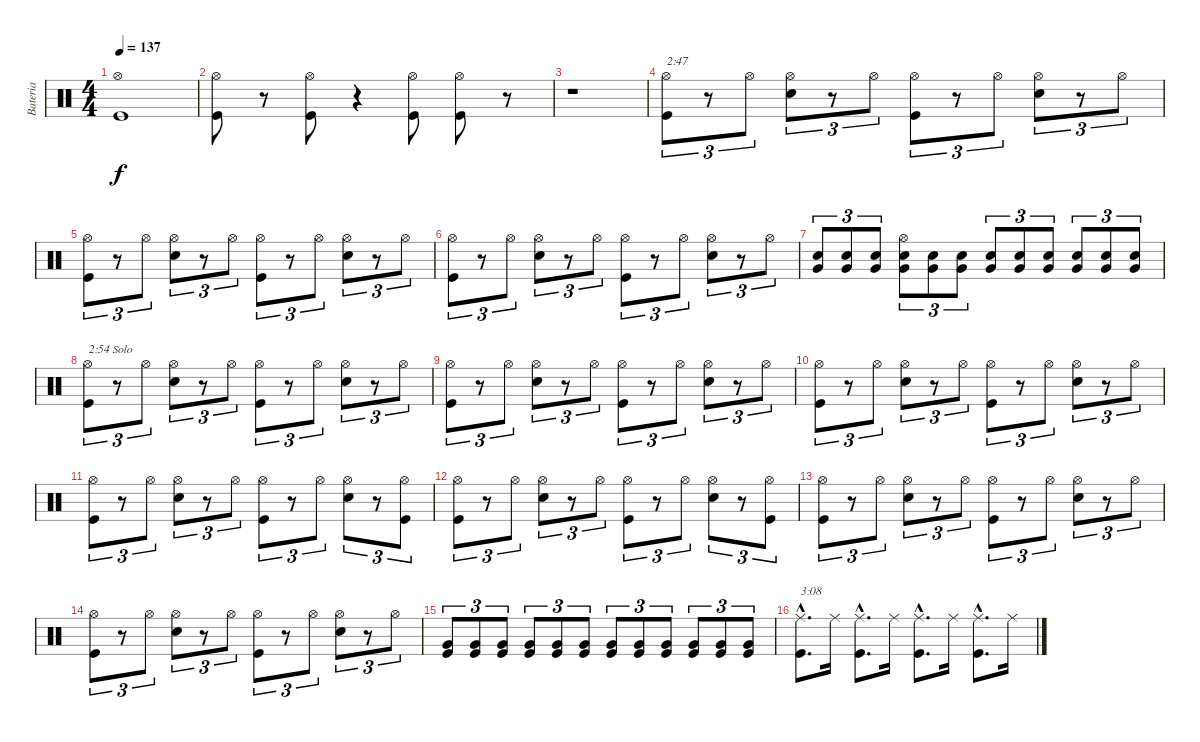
\track ("Bateria" "Bateria") {instrument percussion}
\staff {score}
\articulation defaults
\ts (4 4)
\tempo 137
\clef neutral
\ks c
("Kick (hit)" "Hi-Hat (open)").1{dy f} |
("Kick (hit)" "Hi-Hat (open)").8 r.8 ("Kick (hit)" "Hi-Hat (open)").8 r.4 ("Kick (hit)" "Hi-Hat (open)").8 ("Kick (hit)" "Hi-Hat (open)").8 r.8 |
r.1 |
("Kick (hit)" "Hi-Hat (open)").8{tu (3 2) txt "2:47"} r.8{tu (3 2)} "Hi-Hat (open)".8{tu (3 2)} ("Snare (hit) 2" "Hi-Hat (open)").8{tu (3 2)} r.8{tu (3 2)} "Hi-Hat (open)".8{tu (3 2)} ("Kick (hit)" "Hi-Hat (open)").8{tu (3 2)} r.8{tu (3 2)} "Hi-Hat (open)".8{tu (3 2)} ("Snare (hit) 2" "Hi-Hat (open)").8{tu (3 2)} r.8{tu (3 2)} "Hi-Hat (open)".8{tu (3 2)} |
("Kick (hit)" "Hi-Hat (open)").8{tu (3 2)} r.8{tu (3 2)} "Hi-Hat (open)".8{tu (3 2)} ("Snare (hit) 2" "Hi-Hat (open)").8{tu (3 2)} r.8{tu (3 2)} "Hi-Hat (open)".8{tu (3 2)} ("Kick (hit)" "Hi-Hat (open)").8{tu (3 2)} r.8{tu (3 2)} "Hi-Hat (open)".8{tu (3 2)} ("Snare (hit) 2" "Hi-Hat (open)").8{tu (3 2)} r.8{tu (3 2)} "Hi-Hat (open)".8{tu (3 2)} |
("Kick (hit)" "Hi-Hat (open)").8{tu (3 2)} r.8{tu (3 2)} "Hi-Hat (open)".8{tu (3 2)} ("Snare (hit) 2" "Hi-Hat (open)").8{tu (3 2)} r.8{tu (3 2)} "Hi-Hat (open)".8{tu (3 2)} ("Kick (hit)" "Hi-Hat (open)").8{tu (3 2)} r.8{tu (3 2)} "Hi-Hat (open)".8{tu (3 2)} ("Snare (hit) 2" "Hi-Hat (open)").8{tu (3 2)} r.8{tu (3 2)} "Hi-Hat (open)".8{tu (3 2)} |
("Snare (hit) 2" "Very Low Tom (hit)").8{tu (3 2)} ("Snare (hit) 2" "Very Low Tom (hit)").8{tu (3 2)} ("Snare (hit) 2" "Very Low Tom (hit)").8{tu (3 2)} ("Snare (hit) 2" "Very Low Tom (hit)" "Hi-Hat (open)").8{tu (3 2)} ("Snare (hit) 2" "Very Low Tom (hit)").8{tu (3 2)} ("Snare (hit) 2" "Very Low Tom (hit)").8{tu (3 2)} ("Snare (hit) 2" "Very Low Tom (hit)").8{tu (3 2)} ("Snare (hit) 2" "Very Low Tom (hit)").8{tu (3 2)} ("Snare (hit) 2" "Very Low Tom (hit)").8{tu (3 2)} ("Snare (hit) 2" "Very Low Tom (hit)").8{tu (3 2)} ("Snare (hit) 2" "Very Low Tom (hit)").8{tu (3 2)} ("Snare (hit) 2" "Very Low Tom (hit)").8{tu (3 2)} |
("Kick (hit)" "Hi-Hat (open)").8{tu (3 2) txt "2:54 Solo"} r.8{tu (3 2)} "Hi-Hat (open)".8{tu (3 2)} ("Snare (hit) 2" "Hi-Hat (open)").8{tu (3 2)} r.8{tu (3 2)} "Hi-Hat (open)".8{tu (3 2)} ("Kick (hit)" "Hi-Hat (open)").8{tu (3 2)} r.8{tu (3 2)} "Hi-Hat (open)".8{tu (3 2)} ("Snare (hit) 2" "Hi-Hat (open)").8{tu (3 2)} r.8{tu (3 2)} "Hi-Hat (open)".8{tu (3 2)} |
("Kick (hit)" "Hi-Hat (open)").8{tu (3 2)} r.8{tu (3 2)} "Hi-Hat (open)".8{tu (3 2)} ("Snare (hit) 2" "Hi-Hat (open)").8{tu (3 2)} r.8{tu (3 2)} "Hi-Hat (open)".8{tu (3 2)} ("Kick (hit)" "Hi-Hat (open)").8{tu (3 2)} r.8{tu (3 2)} "Hi-Hat (open)".8{tu (3 2)} ("Snare (hit) 2" "Hi-Hat (open)").8{tu (3 2)} r.8{tu (3 2)} "Hi-Hat (open)".8{tu (3 2)} |
("Kick (hit)" "Hi-Hat (open)").8{tu (3 2)} r.8{tu (3 2)} "Hi-Hat (open)".8{tu (3 2)} ("Snare (hit) 2" "Hi-Hat (open)").8{tu (3 2)} r.8{tu (3 2)} "Hi-Hat (open)".8{tu (3 2)} ("Kick (hit)" "Hi-Hat (open)").8{tu (3 2)} r.8{tu (3 2)} "Hi-Hat (open)".8{tu (3 2)} ("Snare (hit) 2" "Hi-Hat (open)").8{tu (3 2)} r.8{tu (3 2)} "Hi-Hat (open)".8{tu (3 2)} |
("Kick (hit)" "Hi-Hat (open)").8{tu (3 2)} r.8{tu (3 2)} "Hi-Hat (open)".8{tu (3 2)} ("Snare (hit) 2" "Hi-Hat (open)").8{tu (3 2)} r.8{tu (3 2)} "Hi-Hat (open)".8{tu (3 2)} ("Kick (hit)" "Hi-Hat (open)").8{tu (3 2)} r.8{tu (3 2)} "Hi-Hat (open)".8{tu (3 2)} ("Snare (hit) 2" "Hi-Hat (open)").8{tu (3 2)} r.8{tu (3 2)} ("Kick (hit)" "Hi-Hat (open)").8{tu (3 2)} |
("Kick (hit)" "Hi-Hat (open)").8{tu (3 2)} r.8{tu (3 2)} "Hi-Hat (open)".8{tu (3 2)} ("Snare (hit) 2" "Hi-Hat (open)").8{tu (3 2)} r.8{tu (3 2)} "Hi-Hat (open)".8{tu (3 2)} ("Kick (hit)" "Hi-Hat (open)").8{tu (3 2)} r.8{tu (3 2)} "Hi-Hat (open)".8{tu (3 2)} ("Snare (hit) 2" "Hi-Hat (open)").8{tu (3 2)} r.8{tu (3 2)} ("Kick (hit)" "Hi-Hat (open)").8{tu (3 2)} |
("Kick (hit)" "Hi-Hat (open)").8{tu (3 2)} r.8{tu (3 2)} "Hi-Hat (open)".8{tu (3 2)} ("Snare (hit) 2" "Hi-Hat (open)").8{tu (3 2)} r.8{tu (3 2)} "Hi-Hat (open)".8{tu (3 2)} ("Kick (hit)" "Hi-Hat (open)").8{tu (3 2)} r.8{tu (3 2)} "Hi-Hat (open)".8{tu (3 2)} ("Snare (hit) 2" "Hi-Hat (open)").8{tu (3 2)} r.8{tu (3 2)} "Hi-Hat (open)".8{tu (3 2)} |
("Kick (hit)" "Hi-Hat (open)").8{tu (3 2)} r.8{tu (3 2)} "Hi-Hat (open)".8{tu (3 2)} ("Snare (hit) 2" "Hi-Hat (open)").8{tu (3 2)} r.8{tu (3 2)} "Hi-Hat (open)".8{tu (3 2)} ("Kick (hit)" "Hi-Hat (open)").8{tu (3 2)} r.8{tu (3 2)} "Hi-Hat (open)".8{tu (3 2)} ("Snare (hit) 2" "Hi-Hat (open)").8{tu (3 2)} r.8{tu (3 2)} "Hi-Hat (open)".8{tu (3 2)} |
("Kick (hit)" "Very Low Tom (hit)").8{tu (3 2)} ("Kick (hit)" "Very Low Tom (hit)").8{tu (3 2)} ("Kick (hit)" "Very Low Tom (hit)").8{tu (3 2)} ("Kick (hit)" "Very Low Tom (hit)").8{tu (3 2)} ("Kick (hit)" "Very Low Tom (hit)").8{tu (3 2)} ("Kick (hit)" "Very Low Tom (hit)").8{tu (3 2)} ("Kick (hit)" "Very Low Tom (hit)").8{tu (3 2)} ("Kick (hit)" "Very Low Tom (hit)").8{tu (3 2)} ("Kick (hit)" "Very Low Tom (hit)").8{tu (3 2)} ("Kick (hit)" "Very Low Tom (hit)").8{tu (3 2)} ("Kick (hit)" "Very Low Tom (hit)").8{tu (3 2)} ("Kick (hit)" "Very Low Tom (hit)").8{tu (3 2)} |
("Kick (hit)"{hac} "Ride (middle)"{hac}).8{d txt "3:08"} "Ride (middle)".16 ("Kick (hit)"{hac} "Ride (middle)"{hac}).8{d} "Ride (middle)".16 ("Kick (hit)"{hac} "Ride (middle)"{hac}).8{d} "Ride (middle)".16 ("Kick (hit)"{hac} "Ride (middle)"{hac}).8{d} "Ride (middle)".16
